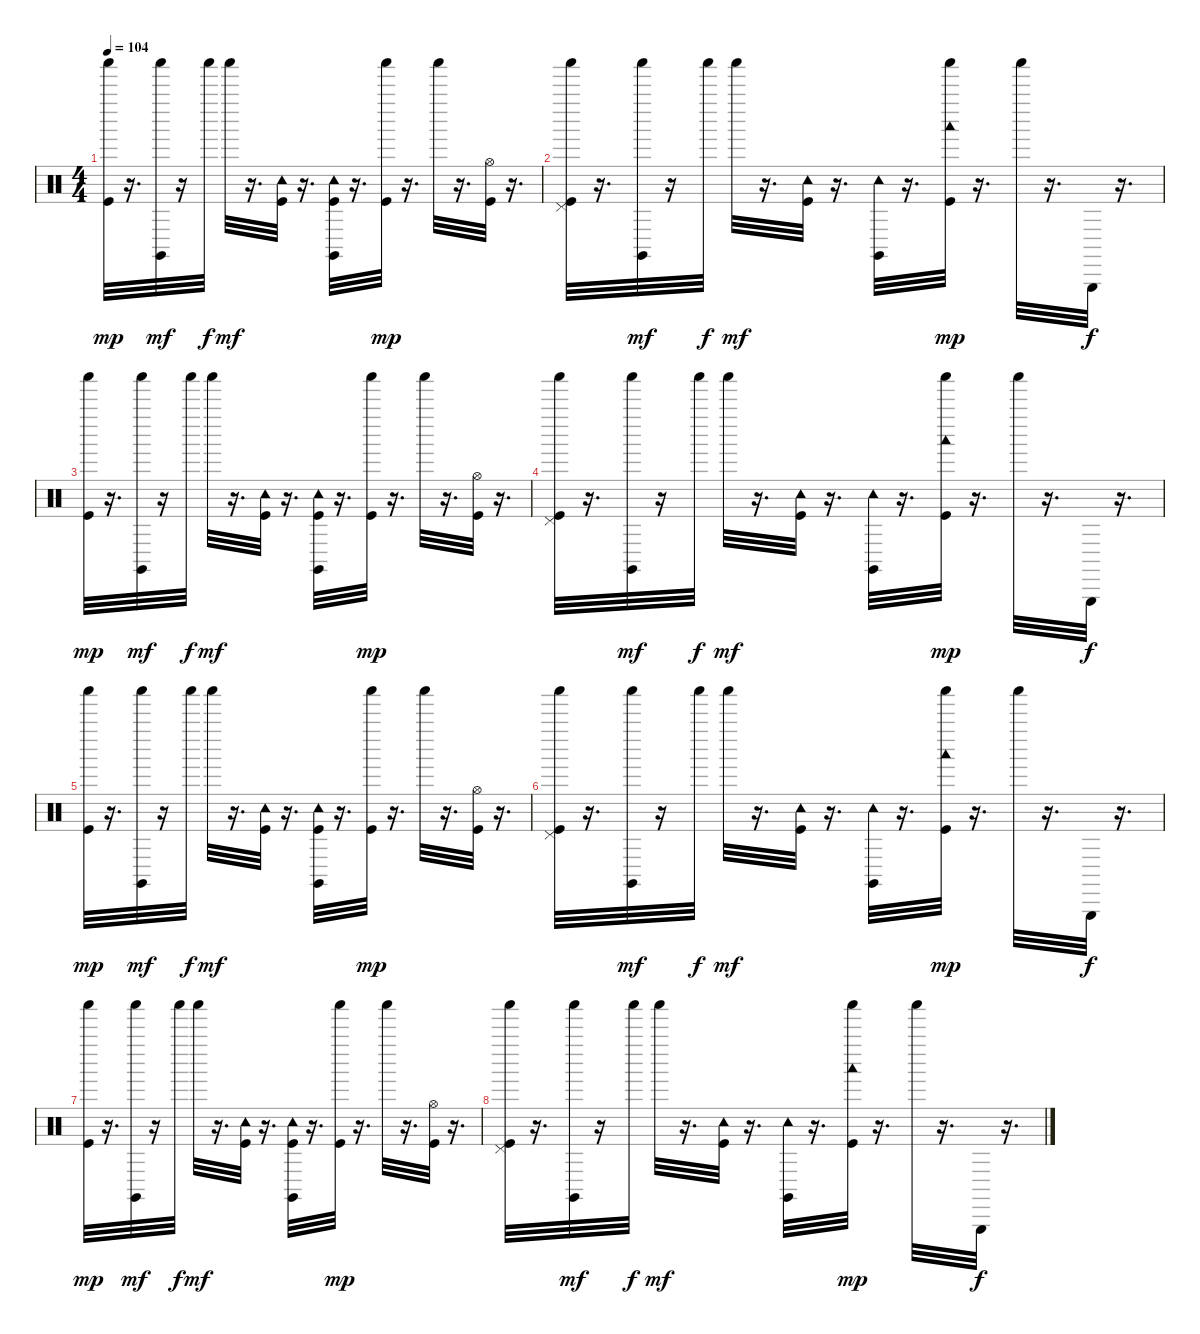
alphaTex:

\track "" {instrument percussion}
\staff {score}
\articulation defaults
\ts (4 4)
\tempo 104
\clef neutral
\ks c
("Shaker (hit)" "Kick (hit)").32{dy mp} r.16{d} ("Claves (hit)" "Shaker (hit)").32{dy mf} r.16 "Shaker (hit)".32{dy f} "Shaker (hit)".32{dy mf} r.16{d} ("Kick (hit)" "Tambourine (hit)").32 r.16{d} ("Claves (hit)" "Tambourine (hit)" "Kick (hit)").32 r.16{d} ("Shaker (hit)" "Kick (hit)").32{dy mp} r.16{d} "Shaker (hit)".32 r.16{d} ("Hi-Hat (open)" "Kick (hit)").32 r.16{d} |
("Pedal Hi-Hat (hit)" "Kick (hit)" "Shaker (hit)").32 r.16{d} ("Claves (hit)" "Shaker (hit)").32{dy mf} r.16 "Shaker (hit)".32{dy f} "Shaker (hit)".32{dy mf} r.16{d} ("Kick (hit)" "Tambourine (hit)").32 r.16{d} ("Claves (hit)" "Tambourine (hit)").32 r.16{d} ("Woodblock low (hit)" "Kick (hit)" "Shaker (hit)").32{dy mp} r.16{d} "Shaker (hit)".32 r.16{d} "Triangle (hit)".32{dy f} r.16{d} |
("Shaker (hit)" "Kick (hit)").32{dy mp} r.16{d} ("Claves (hit)" "Shaker (hit)").32{dy mf} r.16 "Shaker (hit)".32{dy f} "Shaker (hit)".32{dy mf} r.16{d} ("Kick (hit)" "Tambourine (hit)").32 r.16{d} ("Claves (hit)" "Tambourine (hit)" "Kick (hit)").32 r.16{d} ("Shaker (hit)" "Kick (hit)").32{dy mp} r.16{d} "Shaker (hit)".32 r.16{d} ("Hi-Hat (open)" "Kick (hit)").32 r.16{d} |
("Pedal Hi-Hat (hit)" "Kick (hit)" "Shaker (hit)").32 r.16{d} ("Claves (hit)" "Shaker (hit)").32{dy mf} r.16 "Shaker (hit)".32{dy f} "Shaker (hit)".32{dy mf} r.16{d} ("Kick (hit)" "Tambourine (hit)").32 r.16{d} ("Claves (hit)" "Tambourine (hit)").32 r.16{d} ("Woodblock low (hit)" "Kick (hit)" "Shaker (hit)").32{dy mp} r.16{d} "Shaker (hit)".32 r.16{d} "Triangle (hit)".32{dy f} r.16{d} |
("Shaker (hit)" "Kick (hit)").32{dy mp} r.16{d} ("Claves (hit)" "Shaker (hit)").32{dy mf} r.16 "Shaker (hit)".32{dy f} "Shaker (hit)".32{dy mf} r.16{d} ("Kick (hit)" "Tambourine (hit)").32 r.16{d} ("Claves (hit)" "Tambourine (hit)" "Kick (hit)").32 r.16{d} ("Shaker (hit)" "Kick (hit)").32{dy mp} r.16{d} "Shaker (hit)".32 r.16{d} ("Hi-Hat (open)" "Kick (hit)").32 r.16{d} |
("Pedal Hi-Hat (hit)" "Kick (hit)" "Shaker (hit)").32 r.16{d} ("Claves (hit)" "Shaker (hit)").32{dy mf} r.16 "Shaker (hit)".32{dy f} "Shaker (hit)".32{dy mf} r.16{d} ("Kick (hit)" "Tambourine (hit)").32 r.16{d} ("Claves (hit)" "Tambourine (hit)").32 r.16{d} ("Woodblock low (hit)" "Kick (hit)" "Shaker (hit)").32{dy mp} r.16{d} "Shaker (hit)".32 r.16{d} "Triangle (hit)".32{dy f} r.16{d} |
("Shaker (hit)" "Kick (hit)").32{dy mp} r.16{d} ("Claves (hit)" "Shaker (hit)").32{dy mf} r.16 "Shaker (hit)".32{dy f} "Shaker (hit)".32{dy mf} r.16{d} ("Kick (hit)" "Tambourine (hit)").32 r.16{d} ("Claves (hit)" "Tambourine (hit)" "Kick (hit)").32 r.16{d} ("Shaker (hit)" "Kick (hit)").32{dy mp} r.16{d} "Shaker (hit)".32 r.16{d} ("Hi-Hat (open)" "Kick (hit)").32 r.16{d} |
("Pedal Hi-Hat (hit)" "Kick (hit)" "Shaker (hit)").32 r.16{d} ("Claves (hit)" "Shaker (hit)").32{dy mf} r.16 "Shaker (hit)".32{dy f} "Shaker (hit)".32{dy mf} r.16{d} ("Kick (hit)" "Tambourine (hit)").32 r.16{d} ("Claves (hit)" "Tambourine (hit)").32 r.16{d} ("Woodblock low (hit)" "Kick (hit)" "Shaker (hit)").32{dy mp} r.16{d} "Shaker (hit)".32 r.16{d} "Triangle (hit)".32{dy f} r.16{d}
